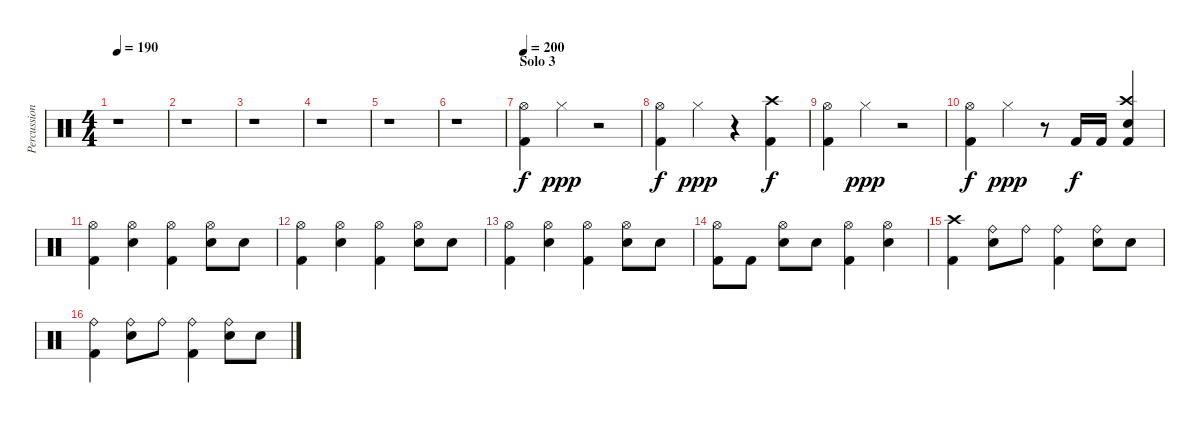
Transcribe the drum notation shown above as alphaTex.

\track ("Percussion" "Percussion") {instrument percussion}
\staff {score}
\articulation defaults
\ts (4 4)
\tempo 190
\clef neutral
\ks c
r.1{dy ppp} |
r.1 |
r.1 |
r.1 |
r.1 |
r.1 |
\section ("" "Solo 3")
\tempo 200
("Hi-Hat (open)" "Kick (hit) 2").4{dy f} "Hi-Hat (closed)".4{dy ppp} r.2 |
("Hi-Hat (open)" "Kick (hit) 2").4{dy f} "Hi-Hat (closed)".4{dy ppp} r.4 ("Crash high (hit)" "Kick (hit) 2").4{dy f} |
("Hi-Hat (open)" "Kick (hit) 2").4 "Hi-Hat (closed)".4{dy ppp} r.2 |
("Hi-Hat (open)" "Kick (hit) 2").4{dy f} "Hi-Hat (closed)".4{dy ppp} r.8 "Kick (hit) 2".16{dy f} "Kick (hit) 2".16 ("Crash high (hit)" "Electric Snare (hit)" "Kick (hit) 2").4 |
("Hi-Hat (open)" "Kick (hit) 2").4 ("Hi-Hat (open)" "Electric Snare (hit)").4 ("Hi-Hat (open)" "Kick (hit) 2").4 ("Hi-Hat (open)" "Electric Snare (hit)").8 "Electric Snare (hit)".8 |
("Hi-Hat (open)" "Kick (hit) 2").4 ("Hi-Hat (open)" "Electric Snare (hit)").4 ("Hi-Hat (open)" "Kick (hit) 2").4 ("Hi-Hat (open)" "Electric Snare (hit)").8 "Electric Snare (hit)".8 |
("Hi-Hat (open)" "Kick (hit) 2").4 ("Hi-Hat (open)" "Electric Snare (hit)").4 ("Hi-Hat (open)" "Kick (hit) 2").4 ("Hi-Hat (open)" "Electric Snare (hit)").8 "Electric Snare (hit)".8 |
("Hi-Hat (open)" "Kick (hit) 2").8 "Kick (hit) 2".8 ("Hi-Hat (open)" "Electric Snare (hit)").8 "Electric Snare (hit)".8 ("Hi-Hat (open)" "Kick (hit) 2").4 ("Hi-Hat (open)" "Electric Snare (hit)").4 |
("Crash high (hit)" "Kick (hit) 2").4 ("Ride (bell)" "Electric Snare (hit)").8 "Ride (bell)".8 ("Ride (bell)" "Kick (hit) 2").4 ("Ride (bell)" "Electric Snare (hit)").8 "Electric Snare (hit)".8 |
("Ride (bell)" "Kick (hit) 2").4 ("Ride (bell)" "Electric Snare (hit)").8 "Ride (bell)".8 ("Ride (bell)" "Kick (hit) 2").4 ("Ride (bell)" "Electric Snare (hit)").8 "Electric Snare (hit)".8
